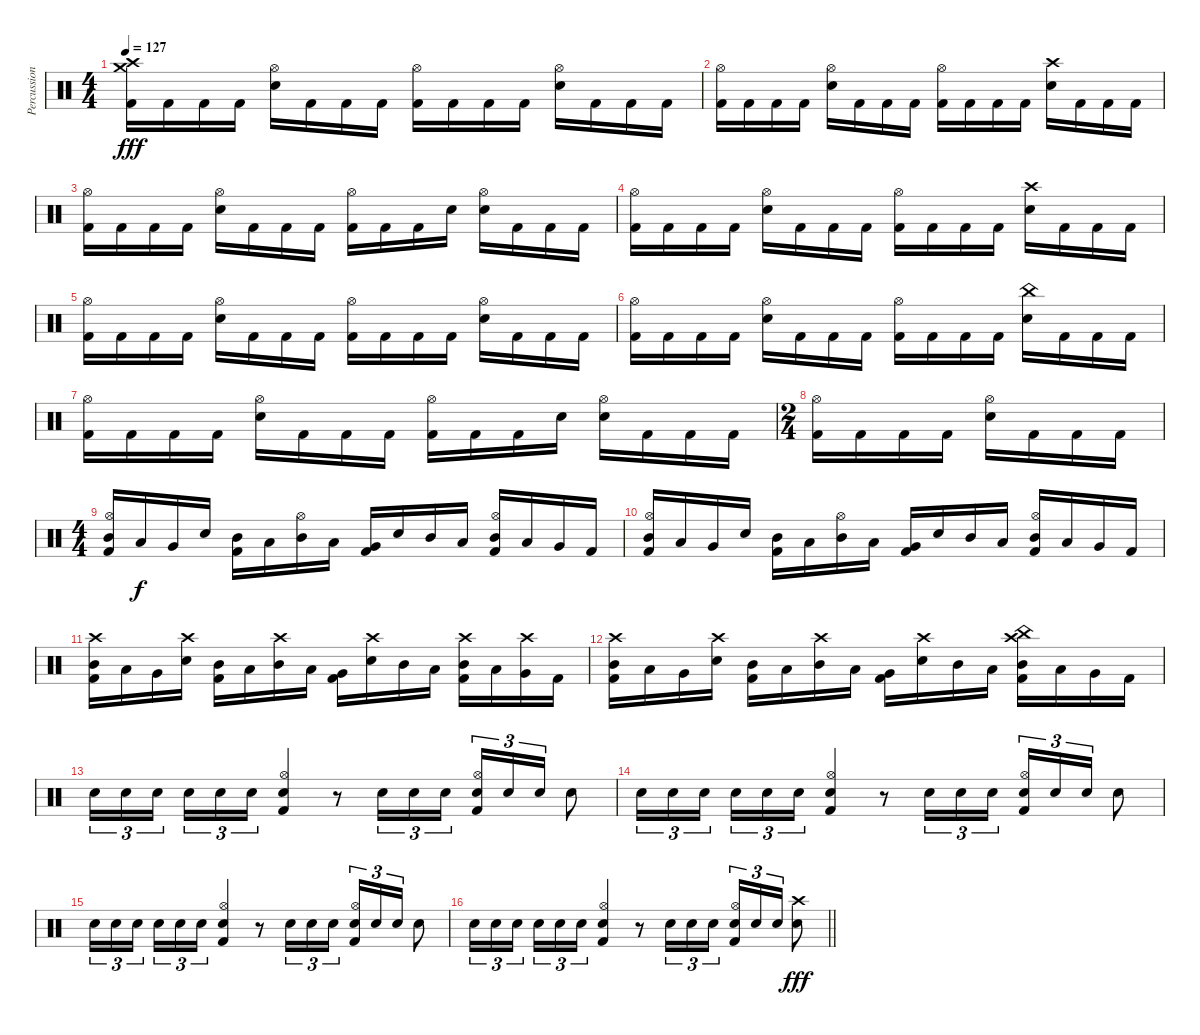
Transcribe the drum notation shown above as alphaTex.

\track ("Percussion" "Percussion") {instrument percussion}
\staff {score}
\articulation defaults
\ts (4 4)
\tempo 127
\clef neutral
\ks c
("Crash high (hit)" "Crash medium (hit)" "Kick (hit) 2").16{dy fff} "Kick (hit) 2".16 "Kick (hit) 2".16 "Kick (hit) 2".16 ("Hi-Hat (open)" "Snare (hit) 2").16 "Kick (hit) 2".16 "Kick (hit) 2".16 "Kick (hit) 2".16 ("Hi-Hat (open)" "Kick (hit) 2").16 "Kick (hit) 2".16 "Kick (hit) 2".16 "Kick (hit) 2".16 ("Hi-Hat (open)" "Snare (hit) 2").16 "Kick (hit) 2".16 "Kick (hit) 2".16 "Kick (hit) 2".16 |
("Hi-Hat (open)" "Kick (hit) 2").16 "Kick (hit) 2".16 "Kick (hit) 2".16 "Kick (hit) 2".16 ("Hi-Hat (open)" "Snare (hit) 2").16 "Kick (hit) 2".16 "Kick (hit) 2".16 "Kick (hit) 2".16 ("Hi-Hat (open)" "Kick (hit) 2").16 "Kick (hit) 2".16 "Kick (hit) 2".16 "Kick (hit) 2".16 ("Crash high (hit)" "Snare (hit) 2").16 "Kick (hit) 2".16 "Kick (hit) 2".16 "Kick (hit) 2".16 |
("Hi-Hat (open)" "Kick (hit) 2").16 "Kick (hit) 2".16 "Kick (hit) 2".16 "Kick (hit) 2".16 ("Hi-Hat (open)" "Snare (hit) 2").16 "Kick (hit) 2".16 "Kick (hit) 2".16 "Kick (hit) 2".16 ("Hi-Hat (open)" "Kick (hit) 2").16 "Kick (hit) 2".16 "Kick (hit) 2".16 "Snare (hit) 2".16 ("Hi-Hat (open)" "Snare (hit) 2").16 "Kick (hit) 2".16 "Kick (hit) 2".16 "Kick (hit) 2".16 |
("Hi-Hat (open)" "Kick (hit) 2").16 "Kick (hit) 2".16 "Kick (hit) 2".16 "Kick (hit) 2".16 ("Hi-Hat (open)" "Snare (hit) 2").16 "Kick (hit) 2".16 "Kick (hit) 2".16 "Kick (hit) 2".16 ("Hi-Hat (open)" "Kick (hit) 2").16 "Kick (hit) 2".16 "Kick (hit) 2".16 "Kick (hit) 2".16 ("Crash high (hit)" "Snare (hit) 2").16 "Kick (hit) 2".16 "Kick (hit) 2".16 "Kick (hit) 2".16 |
("Hi-Hat (open)" "Kick (hit) 2").16 "Kick (hit) 2".16 "Kick (hit) 2".16 "Kick (hit) 2".16 ("Hi-Hat (open)" "Snare (hit) 2").16 "Kick (hit) 2".16 "Kick (hit) 2".16 "Kick (hit) 2".16 ("Hi-Hat (open)" "Kick (hit) 2").16 "Kick (hit) 2".16 "Kick (hit) 2".16 "Kick (hit) 2".16 ("Hi-Hat (open)" "Snare (hit) 2").16 "Kick (hit) 2".16 "Kick (hit) 2".16 "Kick (hit) 2".16 |
("Hi-Hat (open)" "Kick (hit) 2").16 "Kick (hit) 2".16 "Kick (hit) 2".16 "Kick (hit) 2".16 ("Hi-Hat (open)" "Snare (hit) 2").16 "Kick (hit) 2".16 "Kick (hit) 2".16 "Kick (hit) 2".16 ("Hi-Hat (open)" "Kick (hit) 2").16 "Kick (hit) 2".16 "Kick (hit) 2".16 "Kick (hit) 2".16 ("China (hit)" "Snare (hit) 2").16 "Kick (hit) 2".16 "Kick (hit) 2".16 "Kick (hit) 2".16 |
("Hi-Hat (open)" "Kick (hit) 2").16 "Kick (hit) 2".16 "Kick (hit) 2".16 "Kick (hit) 2".16 ("Hi-Hat (open)" "Snare (hit) 2").16 "Kick (hit) 2".16 "Kick (hit) 2".16 "Kick (hit) 2".16 ("Hi-Hat (open)" "Kick (hit) 2").16 "Kick (hit) 2".16 "Kick (hit) 2".16 "Snare (hit) 2".16 ("Hi-Hat (open)" "Snare (hit) 2").16 "Kick (hit) 2".16 "Kick (hit) 2".16 "Kick (hit) 2".16 |
\ts (2 4)
("Hi-Hat (open)" "Kick (hit) 2").16 "Kick (hit) 2".16 "Kick (hit) 2".16 "Kick (hit) 2".16 ("Hi-Hat (open)" "Snare (hit) 2").16 "Kick (hit) 2".16 "Kick (hit) 2".16 "Kick (hit) 2".16 |
\ts (4 4)
("Hi-Hat (open)" "Mid Tom (hit)" "Kick (hit) 2").16 "Low Tom (hit)".16{dy f} "Very Low Tom (hit)".16 "Snare (hit) 2".16 ("Mid Tom (hit)" "Kick (hit) 2").16 "Low Tom (hit)".16 ("Hi-Hat (open)" "Mid Tom (hit)").16 "Low Tom (hit)".16 ("Very Low Tom (hit)" "Kick (hit) 2").16 "Snare (hit) 2".16 "Mid Tom (hit)".16 "Low Tom (hit)".16 ("Hi-Hat (open)" "Mid Tom (hit)" "Kick (hit) 2").16 "Low Tom (hit)".16 "Very Low Tom (hit)".16 "Kick (hit) 2".16 |
("Hi-Hat (open)" "Mid Tom (hit)" "Kick (hit) 2").16 "Low Tom (hit)".16 "Very Low Tom (hit)".16 "Snare (hit) 2".16 ("Mid Tom (hit)" "Kick (hit) 2").16 "Low Tom (hit)".16 ("Hi-Hat (open)" "Mid Tom (hit)").16 "Low Tom (hit)".16 ("Very Low Tom (hit)" "Kick (hit) 2").16 "Snare (hit) 2".16 "Mid Tom (hit)".16 "Low Tom (hit)".16 ("Hi-Hat (open)" "Mid Tom (hit)" "Kick (hit) 2").16 "Low Tom (hit)".16 "Very Low Tom (hit)".16 "Kick (hit) 2".16 |
("Crash high (hit)" "Mid Tom (hit)" "Kick (hit) 2").16 "Low Tom (hit)".16 "Very Low Tom (hit)".16 ("Crash high (hit)" "Snare (hit) 2").16 ("Mid Tom (hit)" "Kick (hit) 2").16 "Low Tom (hit)".16 ("Crash high (hit)" "Mid Tom (hit)").16 "Low Tom (hit)".16 ("Very Low Tom (hit)" "Kick (hit) 2").16 ("Crash high (hit)" "Snare (hit) 2").16 "Mid Tom (hit)".16 "Low Tom (hit)".16 ("Crash high (hit)" "Mid Tom (hit)" "Kick (hit) 2").16 "Low Tom (hit)".16 ("Crash high (hit)" "Very Low Tom (hit)").16 "Kick (hit) 2".16 |
("Crash high (hit)" "Mid Tom (hit)" "Kick (hit) 2").16 "Low Tom (hit)".16 "Very Low Tom (hit)".16 ("Crash high (hit)" "Snare (hit) 2").16 ("Mid Tom (hit)" "Kick (hit) 2").16 "Low Tom (hit)".16 ("Crash high (hit)" "Mid Tom (hit)").16 "Low Tom (hit)".16 ("Very Low Tom (hit)" "Kick (hit) 2").16 ("Crash high (hit)" "Snare (hit) 2").16 "Mid Tom (hit)".16 "Low Tom (hit)".16 ("China (hit)" "Crash high (hit)" "Mid Tom (hit)" "Kick (hit) 2").16 "Low Tom (hit)".16 "Very Low Tom (hit)".16 "Kick (hit) 2".16 |
"Snare (hit) 2".16{tu (3 2)} "Snare (hit) 2".16{tu (3 2)} "Snare (hit) 2".16{tu (3 2) beam splitsecondary} "Snare (hit) 2".16{tu (3 2)} "Snare (hit) 2".16{tu (3 2)} "Snare (hit) 2".16{tu (3 2)} ("Hi-Hat (open)" "Snare (hit) 2" "Kick (hit) 2").4 r.8 "Snare (hit) 2".16{tu (3 2)} "Snare (hit) 2".16{tu (3 2)} "Snare (hit) 2".16{tu (3 2)} ("Hi-Hat (open)" "Snare (hit) 2" "Kick (hit) 2").16{tu (3 2)} "Snare (hit) 2".16{tu (3 2)} "Snare (hit) 2".16{tu (3 2)} "Snare (hit) 2".8 |
"Snare (hit) 2".16{tu (3 2)} "Snare (hit) 2".16{tu (3 2)} "Snare (hit) 2".16{tu (3 2) beam splitsecondary} "Snare (hit) 2".16{tu (3 2)} "Snare (hit) 2".16{tu (3 2)} "Snare (hit) 2".16{tu (3 2)} ("Hi-Hat (open)" "Snare (hit) 2" "Kick (hit) 2").4 r.8 "Snare (hit) 2".16{tu (3 2)} "Snare (hit) 2".16{tu (3 2)} "Snare (hit) 2".16{tu (3 2)} ("Hi-Hat (open)" "Snare (hit) 2" "Kick (hit) 2").16{tu (3 2)} "Snare (hit) 2".16{tu (3 2)} "Snare (hit) 2".16{tu (3 2)} "Snare (hit) 2".8 |
"Snare (hit) 2".16{tu (3 2)} "Snare (hit) 2".16{tu (3 2)} "Snare (hit) 2".16{tu (3 2) beam splitsecondary} "Snare (hit) 2".16{tu (3 2)} "Snare (hit) 2".16{tu (3 2)} "Snare (hit) 2".16{tu (3 2)} ("Hi-Hat (open)" "Snare (hit) 2" "Kick (hit) 2").4 r.8 "Snare (hit) 2".16{tu (3 2)} "Snare (hit) 2".16{tu (3 2)} "Snare (hit) 2".16{tu (3 2)} ("Hi-Hat (open)" "Snare (hit) 2" "Kick (hit) 2").16{tu (3 2)} "Snare (hit) 2".16{tu (3 2)} "Snare (hit) 2".16{tu (3 2)} "Snare (hit) 2".8 |
\barLineRight lightlight "Snare (hit) 2".16{tu (3 2)} "Snare (hit) 2".16{tu (3 2)} "Snare (hit) 2".16{tu (3 2) beam splitsecondary} "Snare (hit) 2".16{tu (3 2)} "Snare (hit) 2".16{tu (3 2)} "Snare (hit) 2".16{tu (3 2)}
("Hi-Hat (open)" "Snare (hit) 2" "Kick (hit) 2").4 r.8 "Snare (hit) 2".16{tu (3 2)} "Snare (hit) 2".16{tu (3 2)} "Snare (hit) 2".16{tu (3 2)} ("Hi-Hat (open)" "Snare (hit) 2" "Kick (hit) 2").16{tu (3 2)} "Snare (hit) 2".16{tu (3 2)} "Snare (hit) 2".16{tu (3 2)} ("Crash high (hit)" "Snare (hit) 2").8{dy fff}
